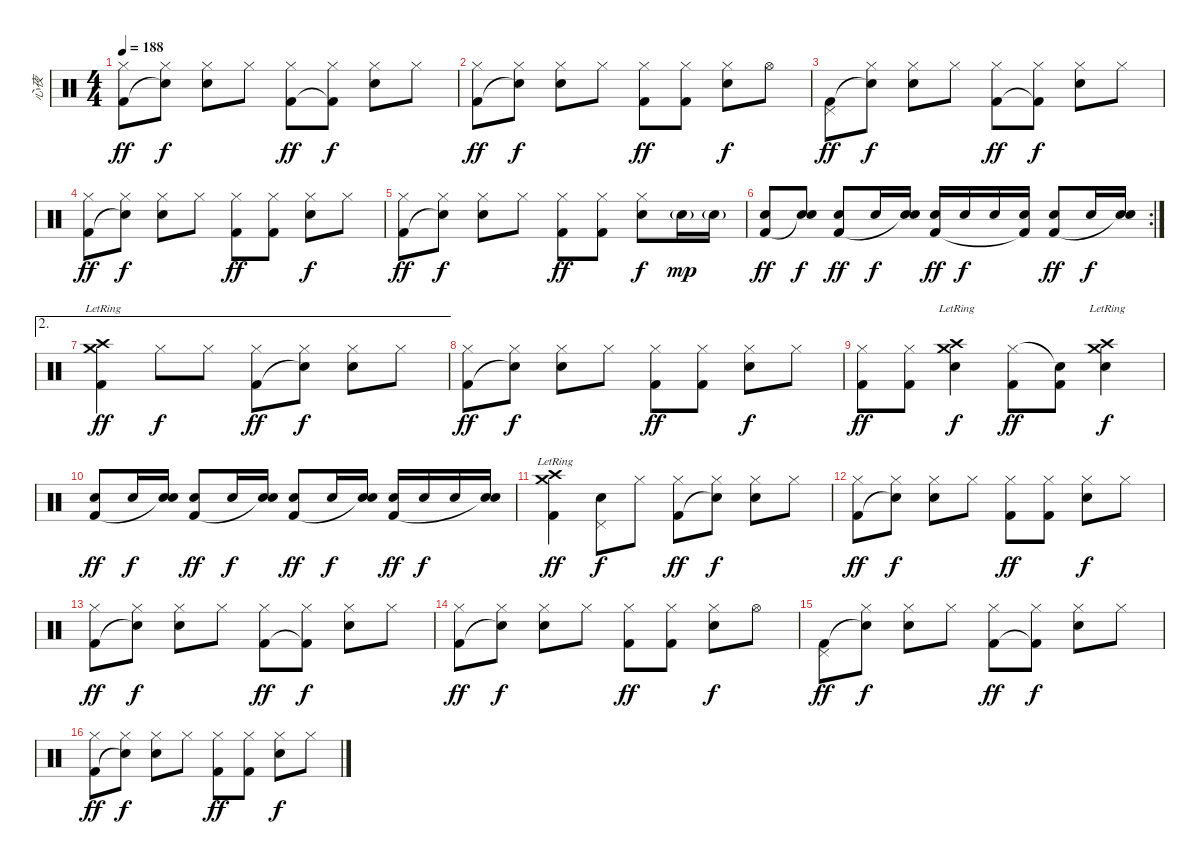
\track ("心夜" "心夜") {instrument percussion}
\staff {score}
\articulation defaults
\ts (4 4)
\tempo 188
\clef neutral
\ks c
("Hi-Hat (closed)" "Kick (hit) 2").8{dy ff} ("Hi-Hat (closed)" "Snare (hit)"{t}).8{dy f} ("Hi-Hat (closed)" "Electric Snare (hit)").8 "Hi-Hat (closed)".8 ("Hi-Hat (closed)" "Kick (hit) 2").8{dy ff} ("Hi-Hat (closed)" "Kick (hit) 2"{t}).8{dy f} ("Hi-Hat (closed)" "Electric Snare (hit)").8 "Hi-Hat (closed)".8 |
("Hi-Hat (closed)" "Kick (hit) 2").8{dy ff} ("Hi-Hat (closed)" "Snare (hit)"{t}).8{dy f} ("Hi-Hat (closed)" "Electric Snare (hit)").8 "Hi-Hat (closed)".8 ("Hi-Hat (closed)" "Kick (hit) 2").8{dy ff} ("Hi-Hat (closed)" "Kick (hit) 2").8 ("Hi-Hat (closed)" "Electric Snare (hit)").8{dy f} "Hi-Hat (open)".8 |
("Pedal Hi-Hat (hit)" "Kick (hit) 2").8{dy ff} ("Hi-Hat (closed)" "Snare (hit)"{t}).8{dy f} ("Hi-Hat (closed)" "Electric Snare (hit)").8 "Hi-Hat (closed)".8 ("Hi-Hat (closed)" "Kick (hit) 2").8{dy ff} ("Hi-Hat (closed)" "Kick (hit) 2"{t}).8{dy f} ("Hi-Hat (closed)" "Electric Snare (hit)").8 "Hi-Hat (closed)".8 |
("Hi-Hat (closed)" "Kick (hit) 2").8{dy ff} ("Hi-Hat (closed)" "Snare (hit)"{t}).8{dy f} ("Hi-Hat (closed)" "Electric Snare (hit)").8 "Hi-Hat (closed)".8 ("Hi-Hat (closed)" "Kick (hit) 2").8{dy ff} ("Hi-Hat (closed)" "Kick (hit) 2").8 ("Hi-Hat (closed)" "Electric Snare (hit)").8{dy f} "Hi-Hat (closed)".8 |
("Hi-Hat (closed)" "Kick (hit) 2").8{dy ff} ("Hi-Hat (closed)" "Snare (hit)"{t}).8{dy f} ("Hi-Hat (closed)" "Electric Snare (hit)").8 "Hi-Hat (closed)".8 ("Hi-Hat (closed)" "Kick (hit) 2").8{dy ff} ("Hi-Hat (closed)" "Kick (hit) 2").8 ("Hi-Hat (closed)" "Electric Snare (hit)").8{dy f} "Electric Snare (hit)"{g}.16{dy mp} "Electric Snare (hit)"{g}.16 |
\rc 2
("Electric Snare (hit)" "Kick (hit) 2").8{dy ff} ("Electric Snare (hit)" "Snare (hit)"{t}).8{dy f} ("Electric Snare (hit)" "Kick (hit) 2").8{dy ff} "Electric Snare (hit)".16{dy f} ("Electric Snare (hit)" "Snare (hit)"{t}).16 ("Electric Snare (hit)" "Kick (hit) 2").16{dy ff} "Electric Snare (hit)".16{dy f} "Electric Snare (hit)".16 ("Electric Snare (hit)" "Kick (hit) 2"{t}).16 ("Electric Snare (hit)" "Kick (hit) 2").8{dy ff} "Electric Snare (hit)".16{dy f} ("Electric Snare (hit)" "Snare (hit)"{t}).16 |
\ae 2
("Crash medium (hit)"{lr} "Crash high (hit)"{lr} "Kick (hit) 2").4{dy ff} "Hi-Hat (closed)".8{dy f} "Hi-Hat (closed)".8 ("Hi-Hat (closed)" "Kick (hit) 2").8{dy ff} ("Hi-Hat (closed)" "Snare (hit)"{t}).8{dy f} ("Hi-Hat (closed)" "Electric Snare (hit)").8 "Hi-Hat (closed)".8 |
("Hi-Hat (closed)" "Kick (hit) 2").8{dy ff} ("Hi-Hat (closed)" "Snare (hit)"{t}).8{dy f} ("Hi-Hat (closed)" "Electric Snare (hit)").8 "Hi-Hat (closed)".8 ("Hi-Hat (closed)" "Kick (hit) 2").8{dy ff} ("Hi-Hat (closed)" "Kick (hit) 2").8 ("Hi-Hat (closed)" "Electric Snare (hit)").8{dy f} "Hi-Hat (closed)".8 |
("Hi-Hat (closed)" "Kick (hit) 2").8{dy ff} ("Hi-Hat (closed)" "Kick (hit) 2").8 ("Crash medium (hit)"{lr} "Electric Snare (hit)" "Crash high (hit)"{lr}).4{dy f} ("Hi-Hat (closed)" "Kick (hit) 2").8{dy ff} ("Snare (hit)"{t} "Kick (hit) 2").8 ("Crash medium (hit)"{lr} "Electric Snare (hit)" "Crash high (hit)"{lr}).4{dy f} |
("Electric Snare (hit)" "Kick (hit) 2").8{dy ff} "Electric Snare (hit)".16{dy f} ("Electric Snare (hit)" "Snare (hit)"{t}).16 ("Electric Snare (hit)" "Kick (hit) 2").8{dy ff} "Electric Snare (hit)".16{dy f} ("Electric Snare (hit)" "Snare (hit)"{t}).16 ("Electric Snare (hit)" "Kick (hit) 2").8{dy ff} "Electric Snare (hit)".16{dy f} ("Electric Snare (hit)" "Snare (hit)"{t}).16 ("Electric Snare (hit)" "Kick (hit) 2").16{dy ff} "Electric Snare (hit)".16{dy f} "Electric Snare (hit)".16 ("Electric Snare (hit)" "Snare (hit)"{t}).16 |
("Crash medium (hit)"{lr} "Crash high (hit)"{lr} "Kick (hit) 2").4{dy ff} ("Pedal Hi-Hat (hit)" "Electric Snare (hit)").8{dy f} "Hi-Hat (closed)".8 ("Hi-Hat (closed)" "Kick (hit) 2").8{dy ff} ("Hi-Hat (closed)" "Snare (hit)"{t}).8{dy f} ("Hi-Hat (closed)" "Electric Snare (hit)").8 "Hi-Hat (closed)".8 |
("Hi-Hat (closed)" "Kick (hit) 2").8{dy ff} ("Hi-Hat (closed)" "Snare (hit)"{t}).8{dy f} ("Hi-Hat (closed)" "Electric Snare (hit)").8 "Hi-Hat (closed)".8 ("Hi-Hat (closed)" "Kick (hit) 2").8{dy ff} ("Hi-Hat (closed)" "Kick (hit) 2").8 ("Hi-Hat (closed)" "Electric Snare (hit)").8{dy f} "Hi-Hat (closed)".8 |
("Hi-Hat (closed)" "Kick (hit) 2").8{dy ff} ("Hi-Hat (closed)" "Snare (hit)"{t}).8{dy f} ("Hi-Hat (closed)" "Electric Snare (hit)").8 "Hi-Hat (closed)".8 ("Hi-Hat (closed)" "Kick (hit) 2").8{dy ff} ("Hi-Hat (closed)" "Kick (hit) 2"{t}).8{dy f} ("Hi-Hat (closed)" "Electric Snare (hit)").8 "Hi-Hat (closed)".8 |
("Hi-Hat (closed)" "Kick (hit) 2").8{dy ff} ("Hi-Hat (closed)" "Snare (hit)"{t}).8{dy f} ("Hi-Hat (closed)" "Electric Snare (hit)").8 "Hi-Hat (closed)".8 ("Hi-Hat (closed)" "Kick (hit) 2").8{dy ff} ("Hi-Hat (closed)" "Kick (hit) 2").8 ("Hi-Hat (closed)" "Electric Snare (hit)").8{dy f} "Hi-Hat (open)".8 |
("Pedal Hi-Hat (hit)" "Kick (hit) 2").8{dy ff} ("Hi-Hat (closed)" "Snare (hit)"{t}).8{dy f} ("Hi-Hat (closed)" "Electric Snare (hit)").8 "Hi-Hat (closed)".8 ("Hi-Hat (closed)" "Kick (hit) 2").8{dy ff} ("Hi-Hat (closed)" "Kick (hit) 2"{t}).8{dy f} ("Hi-Hat (closed)" "Electric Snare (hit)").8 "Hi-Hat (closed)".8 |
("Hi-Hat (closed)" "Kick (hit) 2").8{dy ff} ("Hi-Hat (closed)" "Snare (hit)"{t}).8{dy f} ("Hi-Hat (closed)" "Electric Snare (hit)").8 "Hi-Hat (closed)".8 ("Hi-Hat (closed)" "Kick (hit) 2").8{dy ff} ("Hi-Hat (closed)" "Kick (hit) 2").8 ("Hi-Hat (closed)" "Electric Snare (hit)").8{dy f} "Hi-Hat (closed)".8
